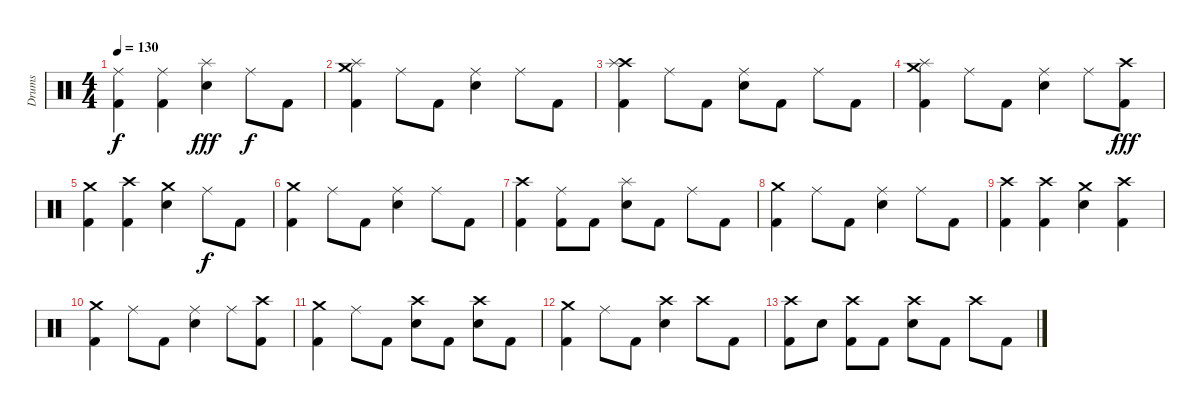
\track ("Drums" "Drums") {instrument percussion}
\staff {score}
\articulation defaults
\ts (4 4)
\tempo 130
\clef neutral
\ks c
("Ride (middle)" "Kick (hit) 2").4{dy f} ("Ride (middle)" "Kick (hit) 2").4 ("Splash (hit)" "Snare (hit) 2").4{dy fff} "Ride (middle)".8{dy f} "Kick (hit) 2".8 |
("Crash medium (hit)" "Splash (hit)" "Kick (hit) 2").4{volume 5} "Ride (middle)".8 "Kick (hit) 2".8 ("Ride (middle)" "Snare (hit) 2").4 "Ride (middle)".8 "Kick (hit) 2".8 |
("Crash high (hit)" "Splash (hit)" "Kick (hit) 2").4 "Ride (middle)".8 "Kick (hit) 2".8 ("Ride (middle)" "Snare (hit) 2").8 "Kick (hit) 2".8 "Ride (middle)".8 "Kick (hit) 2".8 |
("Crash medium (hit)" "Splash (hit)" "Kick (hit) 2").4 "Ride (middle)".8 "Kick (hit) 2".8 ("Ride (middle)" "Snare (hit) 2").4 "Ride (middle)".8 ("Crash high (hit)" "Kick (hit) 2").8{dy fff} |
("Crash medium (hit)" "Kick (hit) 2").4 ("Crash high (hit)" "Kick (hit) 2").4 ("Crash medium (hit)" "Snare (hit) 2").4 "Ride (middle)".8{dy f} "Kick (hit) 2".8 |
("Crash medium (hit)" "Kick (hit) 2").4{volume 3} "Ride (middle)".8 "Kick (hit) 2".8 ("Ride (middle)" "Snare (hit) 2").4 "Ride (middle)".8 "Kick (hit) 2".8 |
("Crash high (hit)" "Kick (hit) 2").4 ("Ride (middle)" "Kick (hit) 2").8 "Kick (hit) 2".8 ("Splash (hit)" "Snare (hit) 2").8 "Kick (hit) 2".8 "Ride (middle)".8 "Kick (hit) 2".8 |
("Crash medium (hit)" "Kick (hit) 2").4 "Ride (middle)".8 "Kick (hit) 2".8 ("Ride (middle)" "Snare (hit) 2").4 "Ride (middle)".8 "Kick (hit) 2".8 |
("Crash high (hit)" "Kick (hit) 2").4 ("Crash high (hit)" "Kick (hit) 2").4 ("Crash medium (hit)" "Snare (hit) 2").4 ("Crash high (hit)" "Kick (hit) 2").4 |
("Crash medium (hit)" "Kick (hit) 2").4{volume 0} "Ride (middle)".8 "Kick (hit) 2".8 ("Ride (middle)" "Snare (hit) 2").4 "Ride (middle)".8 ("Crash high (hit)" "Kick (hit) 2").8 |
("Crash medium (hit)" "Kick (hit) 2").4 "Ride (middle)".8 "Kick (hit) 2".8 ("Crash high (hit)" "Snare (hit) 2").8 "Kick (hit) 2".8 ("Crash high (hit)" "Snare (hit) 2").8 "Kick (hit) 2".8 |
("Crash medium (hit)" "Kick (hit) 2").4 "Ride (middle)".8 "Kick (hit) 2".8 ("Crash high (hit)" "Snare (hit) 2").4 "Crash high (hit)".8 "Kick (hit) 2".8 |
("Crash high (hit)" "Kick (hit) 2").8 "Snare (hit) 2".8 ("Crash high (hit)" "Kick (hit) 2").8 "Kick (hit) 2".8 ("Crash high (hit)" "Snare (hit) 2").8 "Kick (hit) 2".8 "Crash high (hit)".8 "Kick (hit) 2".8
